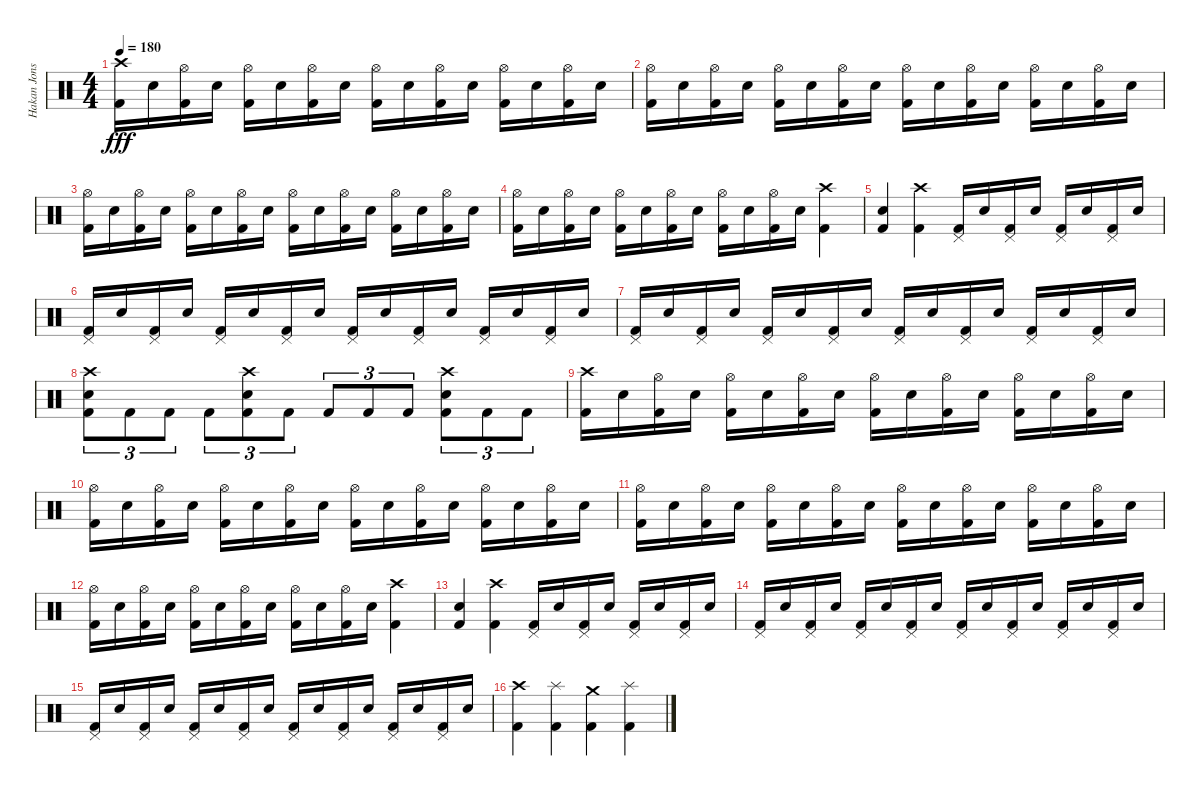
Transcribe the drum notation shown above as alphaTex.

\track ("Hakan Jonsson" "Hakan Jons") {instrument percussion}
\staff {score}
\articulation defaults
\ts (4 4)
\tempo 180
\clef neutral
\ks c
("Crash high (hit)" "Kick (hit) 2").16{dy fff} "Electric Snare (hit)".16 ("Hi-Hat (open)" "Kick (hit) 2").16 "Electric Snare (hit)".16 ("Hi-Hat (open)" "Kick (hit) 2").16 "Electric Snare (hit)".16 ("Hi-Hat (open)" "Kick (hit) 2").16 "Electric Snare (hit)".16 ("Hi-Hat (open)" "Kick (hit) 2").16 "Electric Snare (hit)".16 ("Hi-Hat (open)" "Kick (hit) 2").16 "Electric Snare (hit)".16 ("Hi-Hat (open)" "Kick (hit) 2").16 "Electric Snare (hit)".16 ("Hi-Hat (open)" "Kick (hit) 2").16 "Electric Snare (hit)".16 |
("Hi-Hat (open)" "Kick (hit) 2").16 "Electric Snare (hit)".16 ("Hi-Hat (open)" "Kick (hit) 2").16 "Electric Snare (hit)".16 ("Hi-Hat (open)" "Kick (hit) 2").16 "Electric Snare (hit)".16 ("Hi-Hat (open)" "Kick (hit) 2").16 "Electric Snare (hit)".16 ("Hi-Hat (open)" "Kick (hit) 2").16 "Electric Snare (hit)".16 ("Hi-Hat (open)" "Kick (hit) 2").16 "Electric Snare (hit)".16 ("Hi-Hat (open)" "Kick (hit) 2").16 "Electric Snare (hit)".16 ("Hi-Hat (open)" "Kick (hit) 2").16 "Electric Snare (hit)".16 |
("Hi-Hat (open)" "Kick (hit) 2").16 "Electric Snare (hit)".16 ("Hi-Hat (open)" "Kick (hit) 2").16 "Electric Snare (hit)".16 ("Hi-Hat (open)" "Kick (hit) 2").16 "Electric Snare (hit)".16 ("Hi-Hat (open)" "Kick (hit) 2").16 "Electric Snare (hit)".16 ("Hi-Hat (open)" "Kick (hit) 2").16 "Electric Snare (hit)".16 ("Hi-Hat (open)" "Kick (hit) 2").16 "Electric Snare (hit)".16 ("Hi-Hat (open)" "Kick (hit) 2").16 "Electric Snare (hit)".16 ("Hi-Hat (open)" "Kick (hit) 2").16 "Electric Snare (hit)".16 |
("Hi-Hat (open)" "Kick (hit) 2").16 "Electric Snare (hit)".16 ("Hi-Hat (open)" "Kick (hit) 2").16 "Electric Snare (hit)".16 ("Hi-Hat (open)" "Kick (hit) 2").16 "Electric Snare (hit)".16 ("Hi-Hat (open)" "Kick (hit) 2").16 "Electric Snare (hit)".16 ("Hi-Hat (open)" "Kick (hit) 2").16 "Electric Snare (hit)".16 ("Hi-Hat (open)" "Kick (hit) 2").16 "Electric Snare (hit)".16 ("Crash high (hit)" "Kick (hit) 2").4 |
("Electric Snare (hit)" "Kick (hit) 2").4 ("Crash high (hit)" "Kick (hit) 2").4 ("Pedal Hi-Hat (hit)" "Kick (hit) 2").16 "Electric Snare (hit)".16 ("Pedal Hi-Hat (hit)" "Kick (hit) 2").16 "Electric Snare (hit)".16 ("Pedal Hi-Hat (hit)" "Kick (hit) 2").16 "Electric Snare (hit)".16 ("Pedal Hi-Hat (hit)" "Kick (hit) 2").16 "Electric Snare (hit)".16 |
("Pedal Hi-Hat (hit)" "Kick (hit) 2").16 "Electric Snare (hit)".16 ("Pedal Hi-Hat (hit)" "Kick (hit) 2").16 "Electric Snare (hit)".16 ("Pedal Hi-Hat (hit)" "Kick (hit) 2").16 "Electric Snare (hit)".16 ("Pedal Hi-Hat (hit)" "Kick (hit) 2").16 "Electric Snare (hit)".16 ("Pedal Hi-Hat (hit)" "Kick (hit) 2").16 "Electric Snare (hit)".16 ("Pedal Hi-Hat (hit)" "Kick (hit) 2").16 "Electric Snare (hit)".16 ("Pedal Hi-Hat (hit)" "Kick (hit) 2").16 "Electric Snare (hit)".16 ("Pedal Hi-Hat (hit)" "Kick (hit) 2").16 "Electric Snare (hit)".16 |
("Pedal Hi-Hat (hit)" "Kick (hit) 2").16 "Electric Snare (hit)".16 ("Pedal Hi-Hat (hit)" "Kick (hit) 2").16 "Electric Snare (hit)".16 ("Pedal Hi-Hat (hit)" "Kick (hit) 2").16 "Electric Snare (hit)".16 ("Pedal Hi-Hat (hit)" "Kick (hit) 2").16 "Electric Snare (hit)".16 ("Pedal Hi-Hat (hit)" "Kick (hit) 2").16 "Electric Snare (hit)".16 ("Pedal Hi-Hat (hit)" "Kick (hit) 2").16 "Electric Snare (hit)".16 ("Pedal Hi-Hat (hit)" "Kick (hit) 2").16 "Electric Snare (hit)".16 ("Pedal Hi-Hat (hit)" "Kick (hit) 2").16 "Electric Snare (hit)".16 |
("Crash high (hit)" "Electric Snare (hit)" "Kick (hit) 2").8{tu (3 2)} "Kick (hit) 2".8{tu (3 2)} "Kick (hit) 2".8{tu (3 2)} "Kick (hit) 2".8{tu (3 2)} ("Crash high (hit)" "Electric Snare (hit)" "Kick (hit) 2").8{tu (3 2)} "Kick (hit) 2".8{tu (3 2)} "Kick (hit) 2".8{tu (3 2)} "Kick (hit) 2".8{tu (3 2)} "Kick (hit) 2".8{tu (3 2)} ("Crash high (hit)" "Electric Snare (hit)" "Kick (hit) 2").8{tu (3 2)} "Kick (hit) 2".8{tu (3 2)} "Kick (hit) 2".8{tu (3 2)} |
("Crash high (hit)" "Kick (hit) 2").16 "Electric Snare (hit)".16 ("Hi-Hat (open)" "Kick (hit) 2").16 "Electric Snare (hit)".16 ("Hi-Hat (open)" "Kick (hit) 2").16 "Electric Snare (hit)".16 ("Hi-Hat (open)" "Kick (hit) 2").16 "Electric Snare (hit)".16 ("Hi-Hat (open)" "Kick (hit) 2").16 "Electric Snare (hit)".16 ("Hi-Hat (open)" "Kick (hit) 2").16 "Electric Snare (hit)".16 ("Hi-Hat (open)" "Kick (hit) 2").16 "Electric Snare (hit)".16 ("Hi-Hat (open)" "Kick (hit) 2").16 "Electric Snare (hit)".16 |
("Hi-Hat (open)" "Kick (hit) 2").16 "Electric Snare (hit)".16 ("Hi-Hat (open)" "Kick (hit) 2").16 "Electric Snare (hit)".16 ("Hi-Hat (open)" "Kick (hit) 2").16 "Electric Snare (hit)".16 ("Hi-Hat (open)" "Kick (hit) 2").16 "Electric Snare (hit)".16 ("Hi-Hat (open)" "Kick (hit) 2").16 "Electric Snare (hit)".16 ("Hi-Hat (open)" "Kick (hit) 2").16 "Electric Snare (hit)".16 ("Hi-Hat (open)" "Kick (hit) 2").16 "Electric Snare (hit)".16 ("Hi-Hat (open)" "Kick (hit) 2").16 "Electric Snare (hit)".16 |
("Hi-Hat (open)" "Kick (hit) 2").16 "Electric Snare (hit)".16 ("Hi-Hat (open)" "Kick (hit) 2").16 "Electric Snare (hit)".16 ("Hi-Hat (open)" "Kick (hit) 2").16 "Electric Snare (hit)".16 ("Hi-Hat (open)" "Kick (hit) 2").16 "Electric Snare (hit)".16 ("Hi-Hat (open)" "Kick (hit) 2").16 "Electric Snare (hit)".16 ("Hi-Hat (open)" "Kick (hit) 2").16 "Electric Snare (hit)".16 ("Hi-Hat (open)" "Kick (hit) 2").16 "Electric Snare (hit)".16 ("Hi-Hat (open)" "Kick (hit) 2").16 "Electric Snare (hit)".16 |
("Hi-Hat (open)" "Kick (hit) 2").16 "Electric Snare (hit)".16 ("Hi-Hat (open)" "Kick (hit) 2").16 "Electric Snare (hit)".16 ("Hi-Hat (open)" "Kick (hit) 2").16 "Electric Snare (hit)".16 ("Hi-Hat (open)" "Kick (hit) 2").16 "Electric Snare (hit)".16 ("Hi-Hat (open)" "Kick (hit) 2").16 "Electric Snare (hit)".16 ("Hi-Hat (open)" "Kick (hit) 2").16 "Electric Snare (hit)".16 ("Crash high (hit)" "Kick (hit) 2").4 |
("Electric Snare (hit)" "Kick (hit) 2").4 ("Crash high (hit)" "Kick (hit) 2").4 ("Pedal Hi-Hat (hit)" "Kick (hit) 2").16 "Electric Snare (hit)".16 ("Pedal Hi-Hat (hit)" "Kick (hit) 2").16 "Electric Snare (hit)".16 ("Pedal Hi-Hat (hit)" "Kick (hit) 2").16 "Electric Snare (hit)".16 ("Pedal Hi-Hat (hit)" "Kick (hit) 2").16 "Electric Snare (hit)".16 |
("Pedal Hi-Hat (hit)" "Kick (hit) 2").16 "Electric Snare (hit)".16 ("Pedal Hi-Hat (hit)" "Kick (hit) 2").16 "Electric Snare (hit)".16 ("Pedal Hi-Hat (hit)" "Kick (hit) 2").16 "Electric Snare (hit)".16 ("Pedal Hi-Hat (hit)" "Kick (hit) 2").16 "Electric Snare (hit)".16 ("Pedal Hi-Hat (hit)" "Kick (hit) 2").16 "Electric Snare (hit)".16 ("Pedal Hi-Hat (hit)" "Kick (hit) 2").16 "Electric Snare (hit)".16 ("Pedal Hi-Hat (hit)" "Kick (hit) 2").16 "Electric Snare (hit)".16 ("Pedal Hi-Hat (hit)" "Kick (hit) 2").16 "Electric Snare (hit)".16 |
("Pedal Hi-Hat (hit)" "Kick (hit) 2").16 "Electric Snare (hit)".16 ("Pedal Hi-Hat (hit)" "Kick (hit) 2").16 "Electric Snare (hit)".16 ("Pedal Hi-Hat (hit)" "Kick (hit) 2").16 "Electric Snare (hit)".16 ("Pedal Hi-Hat (hit)" "Kick (hit) 2").16 "Electric Snare (hit)".16 ("Pedal Hi-Hat (hit)" "Kick (hit) 2").16 "Electric Snare (hit)".16 ("Pedal Hi-Hat (hit)" "Kick (hit) 2").16 "Electric Snare (hit)".16 ("Pedal Hi-Hat (hit)" "Kick (hit) 2").16 "Electric Snare (hit)".16 ("Pedal Hi-Hat (hit)" "Kick (hit) 2").16 "Electric Snare (hit)".16 |
("Crash high (hit)" "Kick (hit) 2").4 ("Splash (hit)" "Kick (hit) 2").4 ("Crash medium (hit)" "Kick (hit) 2").4 ("Splash (hit)" "Kick (hit) 2").4
